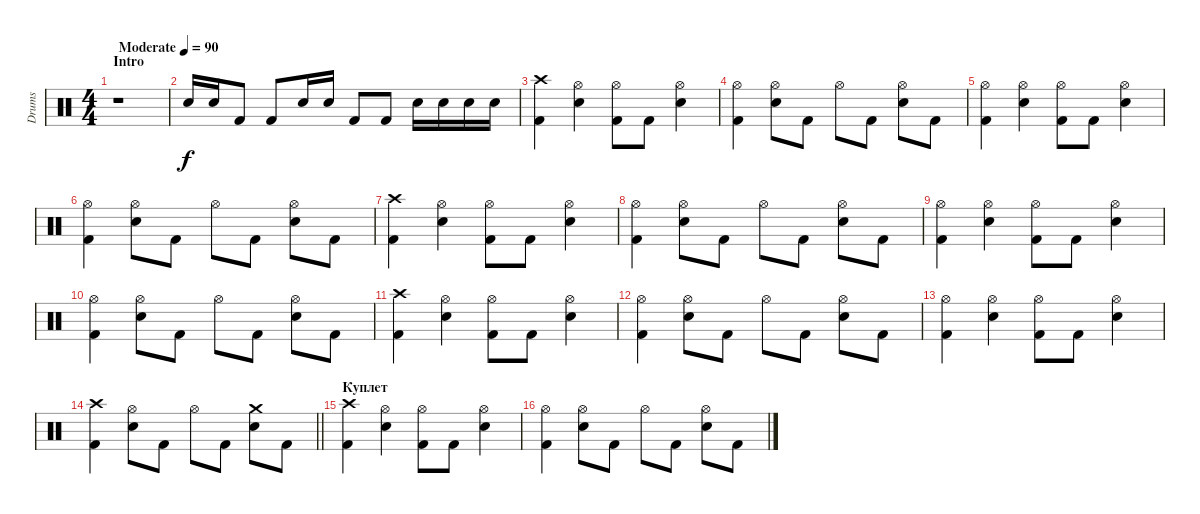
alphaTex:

\track ("Drums" "Drums") {instrument percussion}
\staff {score}
\articulation defaults
\ts (4 4)
\section ("" "Intro")
\tempo (90 "Moderate")
\clef neutral
\ks c
r.1{dy f} |
"Electric Snare (hit)".16 "Electric Snare (hit)".16 "Kick (hit) 2".8 "Kick (hit) 2".8 "Electric Snare (hit)".16 "Electric Snare (hit)".16 "Kick (hit) 2".8 "Kick (hit) 2".8 "Electric Snare (hit)".16 "Electric Snare (hit)".16 "Electric Snare (hit)".16 "Electric Snare (hit)".16 |
("Crash high (hit)" "Kick (hit) 2").4 ("Hi-Hat (open)" "Electric Snare (hit)").4 ("Hi-Hat (open)" "Kick (hit) 2").8 "Kick (hit) 2".8 ("Hi-Hat (open)" "Electric Snare (hit)").4 |
("Hi-Hat (open)" "Kick (hit) 2").4 ("Hi-Hat (open)" "Electric Snare (hit)").8 "Kick (hit) 2".8 "Hi-Hat (open)".8 "Kick (hit) 2".8 ("Hi-Hat (open)" "Electric Snare (hit)").8 "Kick (hit) 2".8 |
("Hi-Hat (open)" "Kick (hit) 2").4 ("Hi-Hat (open)" "Electric Snare (hit)").4 ("Hi-Hat (open)" "Kick (hit) 2").8 "Kick (hit) 2".8 ("Hi-Hat (open)" "Electric Snare (hit)").4 |
("Hi-Hat (open)" "Kick (hit) 2").4 ("Hi-Hat (open)" "Electric Snare (hit)").8 "Kick (hit) 2".8 "Hi-Hat (open)".8 "Kick (hit) 2".8 ("Hi-Hat (open)" "Electric Snare (hit)").8 "Kick (hit) 2".8 |
("Crash high (hit)" "Kick (hit) 2").4 ("Hi-Hat (open)" "Electric Snare (hit)").4 ("Hi-Hat (open)" "Kick (hit) 2").8 "Kick (hit) 2".8 ("Hi-Hat (open)" "Electric Snare (hit)").4 |
("Hi-Hat (open)" "Kick (hit) 2").4 ("Hi-Hat (open)" "Electric Snare (hit)").8 "Kick (hit) 2".8 "Hi-Hat (open)".8 "Kick (hit) 2".8 ("Hi-Hat (open)" "Electric Snare (hit)").8 "Kick (hit) 2".8 |
("Hi-Hat (open)" "Kick (hit) 2").4 ("Hi-Hat (open)" "Electric Snare (hit)").4 ("Hi-Hat (open)" "Kick (hit) 2").8 "Kick (hit) 2".8 ("Hi-Hat (open)" "Electric Snare (hit)").4 |
("Hi-Hat (open)" "Kick (hit) 2").4 ("Hi-Hat (open)" "Electric Snare (hit)").8 "Kick (hit) 2".8 "Hi-Hat (open)".8 "Kick (hit) 2".8 ("Hi-Hat (open)" "Electric Snare (hit)").8 "Kick (hit) 2".8 |
("Crash high (hit)" "Kick (hit) 2").4 ("Hi-Hat (open)" "Electric Snare (hit)").4 ("Hi-Hat (open)" "Kick (hit) 2").8 "Kick (hit) 2".8 ("Hi-Hat (open)" "Electric Snare (hit)").4 |
("Hi-Hat (open)" "Kick (hit) 2").4 ("Hi-Hat (open)" "Electric Snare (hit)").8 "Kick (hit) 2".8 "Hi-Hat (open)".8 "Kick (hit) 2".8 ("Hi-Hat (open)" "Electric Snare (hit)").8 "Kick (hit) 2".8 |
("Hi-Hat (open)" "Kick (hit) 2").4 ("Hi-Hat (open)" "Electric Snare (hit)").4 ("Hi-Hat (open)" "Kick (hit) 2").8 "Kick (hit) 2".8 ("Hi-Hat (open)" "Electric Snare (hit)").4 |
\barLineRight lightlight
("Crash high (hit)" "Kick (hit) 2").4 ("Hi-Hat (open)" "Electric Snare (hit)").8 "Kick (hit) 2".8 "Hi-Hat (open)".8 "Kick (hit) 2".8 ("Crash medium (hit)" "Electric Snare (hit)").8 "Kick (hit) 2".8 |
\section ("" "Куплет ")
("Crash high (hit)" "Kick (hit) 2").4 ("Hi-Hat (open)" "Electric Snare (hit)").4 ("Hi-Hat (open)" "Kick (hit) 2").8 "Kick (hit) 2".8 ("Hi-Hat (open)" "Electric Snare (hit)").4 |
("Hi-Hat (open)" "Kick (hit) 2").4 ("Hi-Hat (open)" "Electric Snare (hit)").8 "Kick (hit) 2".8 "Hi-Hat (open)".8 "Kick (hit) 2".8 ("Hi-Hat (open)" "Electric Snare (hit)").8 "Kick (hit) 2".8
